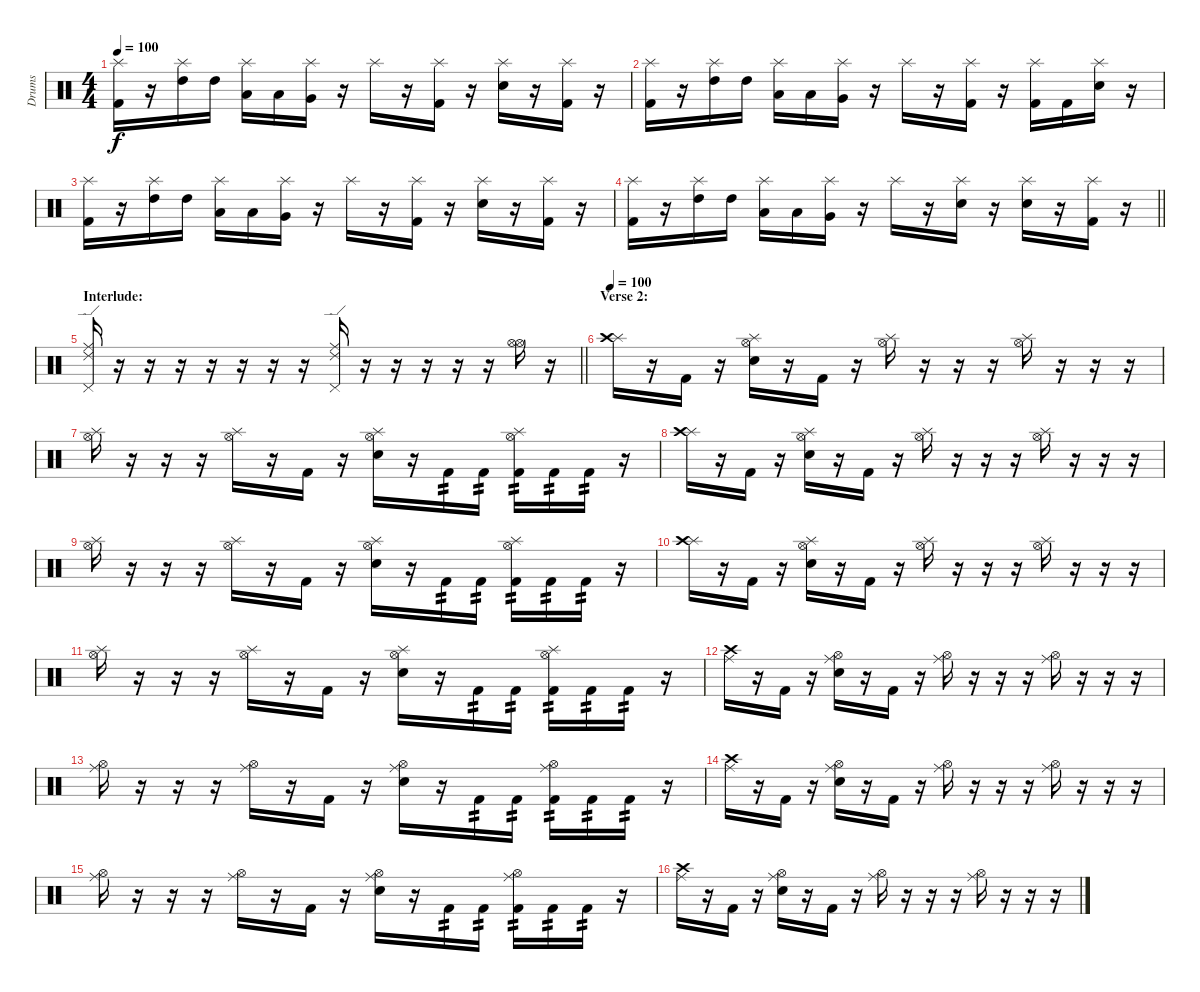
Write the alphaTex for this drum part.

\track ("Drums" "Drums") {instrument percussion}
\staff {score}
\articulation defaults
\ts (4 4)
\tempo 100
\clef neutral
\ks c
("Splash (hit)" "Kick (hit) 2").16{dy f} r.16 ("Splash (hit)" "High Tom (hit)").16 "High Tom (hit)".16 ("Splash (hit)" "Low Tom (hit)").16 "Low Tom (hit)".16 ("Splash (hit)" "Very Low Tom (hit)").16 r.16 "Splash (hit)".16 r.16 ("Splash (hit)" "Kick (hit) 2").16 r.16 ("Splash (hit)" "Electric Snare (hit)").16 r.16 ("Splash (hit)" "Kick (hit) 2").16 r.16 |
("Splash (hit)" "Kick (hit) 2").16 r.16 ("Splash (hit)" "High Tom (hit)").16 "High Tom (hit)".16 ("Splash (hit)" "Low Tom (hit)").16 "Low Tom (hit)".16 ("Splash (hit)" "Very Low Tom (hit)").16 r.16 "Splash (hit)".16 r.16 ("Splash (hit)" "Kick (hit) 2").16 r.16 ("Splash (hit)" "Kick (hit) 2").16 "Kick (hit) 2".16 ("Splash (hit)" "Electric Snare (hit)").16 r.16 |
("Splash (hit)" "Kick (hit) 2").16 r.16 ("Splash (hit)" "High Tom (hit)").16 "High Tom (hit)".16 ("Splash (hit)" "Low Tom (hit)").16 "Low Tom (hit)".16 ("Splash (hit)" "Very Low Tom (hit)").16 r.16 "Splash (hit)".16 r.16 ("Splash (hit)" "Kick (hit) 2").16 r.16 ("Splash (hit)" "Electric Snare (hit)").16 r.16 ("Splash (hit)" "Kick (hit) 2").16 r.16 |
\barLineRight lightlight
("Splash (hit)" "Kick (hit) 2").16 r.16 ("Splash (hit)" "High Tom (hit)").16 "High Tom (hit)".16 ("Splash (hit)" "Low Tom (hit)").16 "Low Tom (hit)".16 ("Splash (hit)" "Very Low Tom (hit)").16 r.16 "Splash (hit)".16 r.16 ("Splash (hit)" "Electric Snare (hit)").16 r.16 ("Splash (hit)" "Electric Snare (hit)").16 r.16 ("Splash (hit)" "Kick (hit) 2").16 r.16 |
\section ("" "Interlude:")
\barLineRight lightlight
("Pedal Hi-Hat (hit)" "Ride (edge) 2" "Ride (middle)").16 r.16 r.16 r.16 r.16 r.16 r.16 r.16 ("Pedal Hi-Hat (hit)" "Ride (edge) 2" "Ride (middle)").16 r.16 r.16 r.16 r.16 r.16 ("Hi-Hat (open)" "Hi-Hat (open)").16 r.16 |
\section ("" "Verse 2:")
\tempo 100
("Splash (hit)" "Crash high (hit)").16 r.16 "Kick (hit) 2".16 r.16 ("Splash (hit)" "Hi-Hat (open)" "Electric Snare (hit)").16 r.16 "Kick (hit) 2".16 r.16 ("Splash (hit)" "Hi-Hat (open)").16 r.16 r.16 r.16 ("Splash (hit)" "Hi-Hat (open)").16 r.16 r.16 r.16 |
("Splash (hit)" "Hi-Hat (open)").16 r.16 r.16 r.16 ("Splash (hit)" "Hi-Hat (open)").16 r.16 "Kick (hit) 2".16 r.16 ("Splash (hit)" "Hi-Hat (open)" "Electric Snare (hit)").16 r.16 "Kick (hit) 2".16{tp 2} "Kick (hit) 2".16{tp 2} ("Splash (hit)" "Hi-Hat (open)" "Kick (hit) 2").16{tp 2} "Kick (hit) 2".16{tp 2} "Kick (hit) 2".16{tp 2} r.16 |
("Splash (hit)" "Crash high (hit)").16 r.16 "Kick (hit) 2".16 r.16 ("Splash (hit)" "Hi-Hat (open)" "Electric Snare (hit)").16 r.16 "Kick (hit) 2".16 r.16 ("Splash (hit)" "Hi-Hat (open)").16 r.16 r.16 r.16 ("Splash (hit)" "Hi-Hat (open)").16 r.16 r.16 r.16 |
("Splash (hit)" "Hi-Hat (open)").16 r.16 r.16 r.16 ("Splash (hit)" "Hi-Hat (open)").16 r.16 "Kick (hit) 2".16 r.16 ("Splash (hit)" "Hi-Hat (open)" "Electric Snare (hit)").16 r.16 "Kick (hit) 2".16{tp 2} "Kick (hit) 2".16{tp 2} ("Splash (hit)" "Hi-Hat (open)" "Kick (hit) 2").16{tp 2} "Kick (hit) 2".16{tp 2} "Kick (hit) 2".16{tp 2} r.16 |
("Splash (hit)" "Crash high (hit)").16 r.16 "Kick (hit) 2".16 r.16 ("Splash (hit)" "Hi-Hat (open)" "Electric Snare (hit)").16 r.16 "Kick (hit) 2".16 r.16 ("Splash (hit)" "Hi-Hat (open)").16 r.16 r.16 r.16 ("Splash (hit)" "Hi-Hat (open)").16 r.16 r.16 r.16 |
("Splash (hit)" "Hi-Hat (open)").16 r.16 r.16 r.16 ("Splash (hit)" "Hi-Hat (open)").16 r.16 "Kick (hit) 2".16 r.16 ("Splash (hit)" "Hi-Hat (open)" "Electric Snare (hit)").16 r.16 "Kick (hit) 2".16{tp 2} "Kick (hit) 2".16{tp 2} ("Splash (hit)" "Hi-Hat (open)" "Kick (hit) 2").16{tp 2} "Kick (hit) 2".16{tp 2} "Kick (hit) 2".16{tp 2} r.16 |
("Ride (middle)" "Crash high (hit)").16 r.16 "Kick (hit) 2".16 r.16 ("Ride (middle)" "Hi-Hat (open)" "Electric Snare (hit)").16 r.16 "Kick (hit) 2".16 r.16 ("Ride (middle)" "Hi-Hat (open)").16 r.16 r.16 r.16 ("Ride (middle)" "Hi-Hat (open)").16 r.16 r.16 r.16 |
("Ride (middle)" "Hi-Hat (open)").16 r.16 r.16 r.16 ("Ride (middle)" "Hi-Hat (open)").16 r.16 "Kick (hit) 2".16 r.16 ("Ride (middle)" "Hi-Hat (open)" "Electric Snare (hit)").16 r.16 "Kick (hit) 2".16{tp 2} "Kick (hit) 2".16{tp 2} ("Ride (middle)" "Hi-Hat (open)" "Kick (hit) 2").16{tp 2} "Kick (hit) 2".16{tp 2} "Kick (hit) 2".16{tp 2} r.16 |
("Ride (middle)" "Crash high (hit)").16 r.16 "Kick (hit) 2".16 r.16 ("Ride (middle)" "Hi-Hat (open)" "Electric Snare (hit)").16 r.16 "Kick (hit) 2".16 r.16 ("Ride (middle)" "Hi-Hat (open)").16 r.16 r.16 r.16 ("Ride (middle)" "Hi-Hat (open)").16 r.16 r.16 r.16 |
("Ride (middle)" "Hi-Hat (open)").16 r.16 r.16 r.16 ("Ride (middle)" "Hi-Hat (open)").16 r.16 "Kick (hit) 2".16 r.16 ("Ride (middle)" "Hi-Hat (open)" "Electric Snare (hit)").16 r.16 "Kick (hit) 2".16{tp 2} "Kick (hit) 2".16{tp 2} ("Ride (middle)" "Hi-Hat (open)" "Kick (hit) 2").16{tp 2} "Kick (hit) 2".16{tp 2} "Kick (hit) 2".16{tp 2} r.16 |
("Ride (middle)" "Crash high (hit)").16 r.16 "Kick (hit) 2".16 r.16 ("Ride (middle)" "Hi-Hat (open)" "Electric Snare (hit)").16 r.16 "Kick (hit) 2".16 r.16 ("Ride (middle)" "Hi-Hat (open)").16 r.16 r.16 r.16 ("Ride (middle)" "Hi-Hat (open)").16 r.16 r.16 r.16
